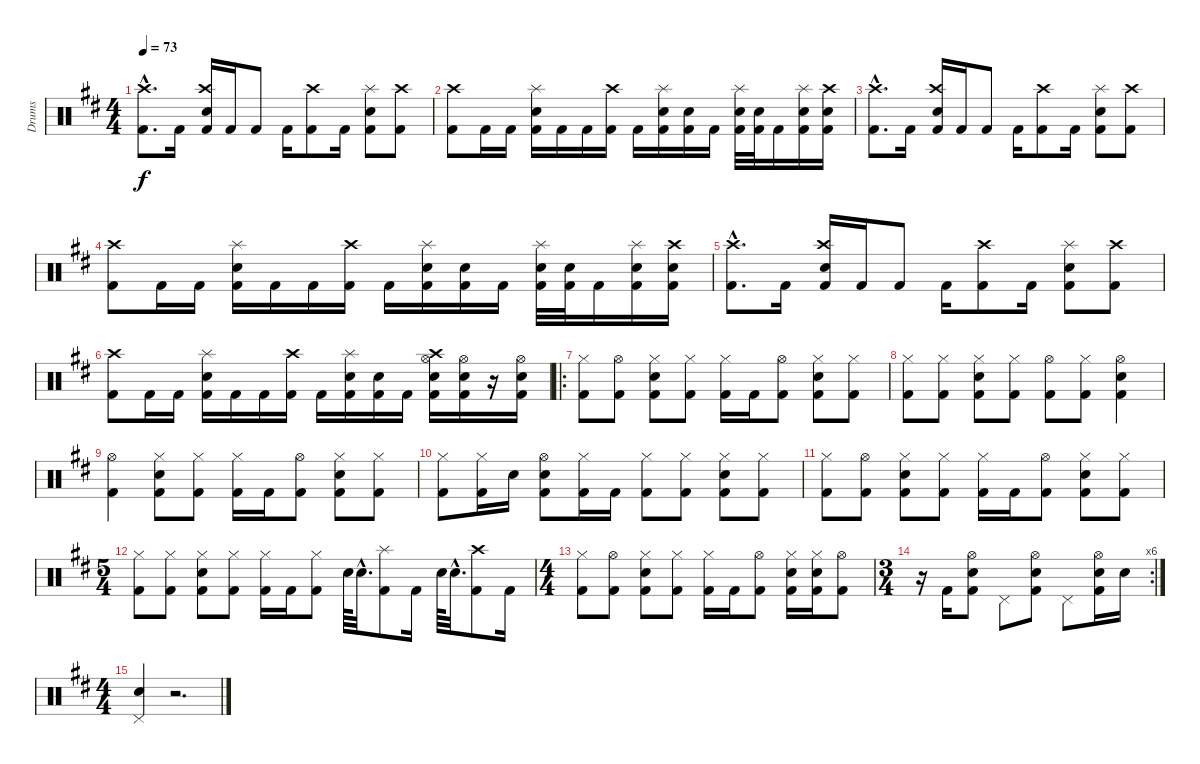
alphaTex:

\track ("Drums" "Drums") {instrument percussion}
\staff {score}
\articulation defaults
\ts (4 4)
\tempo 73
\clef neutral
\ks d
("Kick (hit) 2"{hac} "Crash high (hit)"{hac}).8{d dy f} "Kick (hit) 2".16 ("Kick (hit) 2" "Electric Snare (hit)" "Crash high (hit)").16 "Kick (hit) 2".16 "Kick (hit) 2".8 "Kick (hit) 2".16 ("Kick (hit) 2" "Crash high (hit)").8 "Kick (hit) 2".16 ("Kick (hit) 2" "Electric Snare (hit)" "Splash (hit)").8 ("Kick (hit) 2" "Crash high (hit)").8 |
("Kick (hit) 2" "Crash high (hit)").8 "Kick (hit) 2".16 "Kick (hit) 2".16 ("Kick (hit) 2" "Electric Snare (hit)" "Splash (hit)").16 "Kick (hit) 2".16 "Kick (hit) 2".16 ("Kick (hit) 2" "Crash high (hit)").16 "Kick (hit) 2".16 ("Kick (hit) 2" "Electric Snare (hit)" "Splash (hit)").16 ("Kick (hit) 2" "Electric Snare (hit)").16 "Kick (hit) 2".16 ("Kick (hit) 2" "Electric Snare (hit)" "Splash (hit)").32 ("Kick (hit) 2" "Electric Snare (hit)").32 "Kick (hit) 2".16 ("Kick (hit) 2" "Splash (hit)" "Electric Snare (hit)").16 ("Kick (hit) 2" "Crash high (hit)" "Electric Snare (hit)").16 |
("Kick (hit) 2"{hac} "Crash high (hit)"{hac}).8{d} "Kick (hit) 2".16 ("Kick (hit) 2" "Electric Snare (hit)" "Crash high (hit)").16 "Kick (hit) 2".16 "Kick (hit) 2".8 "Kick (hit) 2".16 ("Kick (hit) 2" "Crash high (hit)").8 "Kick (hit) 2".16 ("Kick (hit) 2" "Electric Snare (hit)" "Splash (hit)").8 ("Kick (hit) 2" "Crash high (hit)").8 |
("Kick (hit) 2" "Crash high (hit)").8 "Kick (hit) 2".16 "Kick (hit) 2".16 ("Kick (hit) 2" "Electric Snare (hit)" "Splash (hit)").16 "Kick (hit) 2".16 "Kick (hit) 2".16 ("Kick (hit) 2" "Crash high (hit)").16 "Kick (hit) 2".16 ("Kick (hit) 2" "Electric Snare (hit)" "Splash (hit)").16 ("Kick (hit) 2" "Electric Snare (hit)").16 "Kick (hit) 2".16 ("Kick (hit) 2" "Electric Snare (hit)" "Splash (hit)").32 ("Kick (hit) 2" "Electric Snare (hit)").32 "Kick (hit) 2".16 ("Kick (hit) 2" "Splash (hit)" "Electric Snare (hit)").16 ("Kick (hit) 2" "Crash high (hit)" "Electric Snare (hit)").16 |
("Kick (hit) 2"{hac} "Crash high (hit)"{hac}).8{d} "Kick (hit) 2".16 ("Kick (hit) 2" "Electric Snare (hit)" "Crash high (hit)").16 "Kick (hit) 2".16 "Kick (hit) 2".8 "Kick (hit) 2".16 ("Kick (hit) 2" "Crash high (hit)").8 "Kick (hit) 2".16 ("Kick (hit) 2" "Electric Snare (hit)" "Splash (hit)").8 ("Kick (hit) 2" "Crash high (hit)").8 |
("Kick (hit) 2" "Crash high (hit)").8 "Kick (hit) 2".16 "Kick (hit) 2".16 ("Kick (hit) 2" "Electric Snare (hit)" "Splash (hit)").16 "Kick (hit) 2".16 "Kick (hit) 2".16 ("Kick (hit) 2" "Crash high (hit)").16 "Kick (hit) 2".16 ("Kick (hit) 2" "Electric Snare (hit)" "Splash (hit)").16 ("Kick (hit) 2" "Electric Snare (hit)").16 "Kick (hit) 2".16 ("Kick (hit) 2" "Electric Snare (hit)" "Hi-Hat (open)" "Crash high (hit)").16 ("Kick (hit) 2" "Electric Snare (hit)" "Hi-Hat (open)").16 r.16 ("Kick (hit) 2" "Electric Snare (hit)" "Hi-Hat (open)").16 |
\ro
("Kick (hit) 2" "Hi-Hat (closed)").8 ("Kick (hit) 2" "Hi-Hat (open)").8 ("Kick (hit) 2" "Hi-Hat (closed)" "Electric Snare (hit)").8 ("Kick (hit) 2" "Hi-Hat (closed)").8 ("Kick (hit) 2" "Hi-Hat (closed)").16 "Kick (hit) 2".16 ("Kick (hit) 2" "Hi-Hat (open)").8 ("Kick (hit) 2" "Hi-Hat (closed)" "Electric Snare (hit)").8 ("Kick (hit) 2" "Hi-Hat (closed)").8 |
("Kick (hit) 2" "Hi-Hat (closed)").8 ("Kick (hit) 2" "Hi-Hat (closed)").8 ("Kick (hit) 2" "Hi-Hat (closed)" "Electric Snare (hit)").8 ("Kick (hit) 2" "Hi-Hat (closed)").8 ("Kick (hit) 2" "Hi-Hat (open)").8 ("Kick (hit) 2" "Hi-Hat (closed)").8 ("Kick (hit) 2" "Hi-Hat (open)" "Electric Snare (hit)").4 |
("Kick (hit) 2" "Hi-Hat (open)").4 ("Kick (hit) 2" "Hi-Hat (closed)" "Electric Snare (hit)").8 ("Kick (hit) 2" "Hi-Hat (closed)").8 ("Kick (hit) 2" "Hi-Hat (closed)").16 "Kick (hit) 2".16 ("Kick (hit) 2" "Hi-Hat (open)").8 ("Kick (hit) 2" "Hi-Hat (closed)" "Electric Snare (hit)").8 ("Kick (hit) 2" "Hi-Hat (closed)").8 |
("Kick (hit) 2" "Hi-Hat (closed)").8 ("Kick (hit) 2" "Hi-Hat (closed)").16 "Electric Snare (hit)".16 ("Kick (hit) 2" "Electric Snare (hit)" "Hi-Hat (open)").8 ("Kick (hit) 2" "Hi-Hat (closed)").16 "Kick (hit) 2".16 ("Kick (hit) 2" "Hi-Hat (closed)").8 ("Kick (hit) 2" "Hi-Hat (closed)").8 ("Kick (hit) 2" "Hi-Hat (closed)" "Electric Snare (hit)").8 ("Kick (hit) 2" "Hi-Hat (closed)").8 |
("Kick (hit) 2" "Hi-Hat (closed)").8 ("Kick (hit) 2" "Hi-Hat (open)").8 ("Kick (hit) 2" "Hi-Hat (closed)" "Electric Snare (hit)").8 ("Kick (hit) 2" "Hi-Hat (closed)").8 ("Kick (hit) 2" "Hi-Hat (closed)").16 "Kick (hit) 2".16 ("Kick (hit) 2" "Hi-Hat (open)").8 ("Kick (hit) 2" "Hi-Hat (closed)" "Electric Snare (hit)").8 ("Kick (hit) 2" "Hi-Hat (closed)").8 |
\ts (5 4)
("Kick (hit) 2" "Hi-Hat (closed)").8 ("Kick (hit) 2" "Hi-Hat (closed)").8 ("Kick (hit) 2" "Hi-Hat (closed)" "Electric Snare (hit)").8 ("Kick (hit) 2" "Hi-Hat (closed)").8 ("Kick (hit) 2" "Hi-Hat (closed)").16 "Kick (hit) 2".16 ("Kick (hit) 2" "Hi-Hat (closed)").8 "Electric Snare (hit)".64 "Electric Snare (hit)"{hac}.32{d} ("Kick (hit) 2" "Splash (hit)").8 "Kick (hit) 2".16 "Electric Snare (hit)".64 "Electric Snare (hit)"{hac}.32{d} ("Kick (hit) 2" "Crash high (hit)").8 "Kick (hit) 2".16 |
\ts (4 4)
("Kick (hit) 2" "Hi-Hat (closed)").8 ("Kick (hit) 2" "Hi-Hat (open)").8 ("Kick (hit) 2" "Hi-Hat (closed)" "Electric Snare (hit)").8 ("Kick (hit) 2" "Hi-Hat (closed)").8 ("Kick (hit) 2" "Hi-Hat (closed)").16 "Kick (hit) 2".16 ("Kick (hit) 2" "Hi-Hat (open)").8 ("Kick (hit) 2" "Hi-Hat (closed)" "Electric Snare (hit)").16 ("Kick (hit) 2" "Hi-Hat (closed)" "Electric Snare (hit)").16 ("Kick (hit) 2" "Hi-Hat (open)").8 |
\rc 6
\ts (3 4)
r.16 "Kick (hit) 2".16 ("Kick (hit) 2" "Hi-Hat (open)" "Electric Snare (hit)").8 "Pedal Hi-Hat (hit)".8 ("Kick (hit) 2" "Hi-Hat (open)" "Electric Snare (hit)").8 "Pedal Hi-Hat (hit)".8 ("Kick (hit) 2" "Electric Snare (hit)" "Hi-Hat (open)").16 "Electric Snare (hit)".16 |
\ts (4 4)
("Electric Snare (hit)" "Pedal Hi-Hat (hit)").4 r.2{d}
